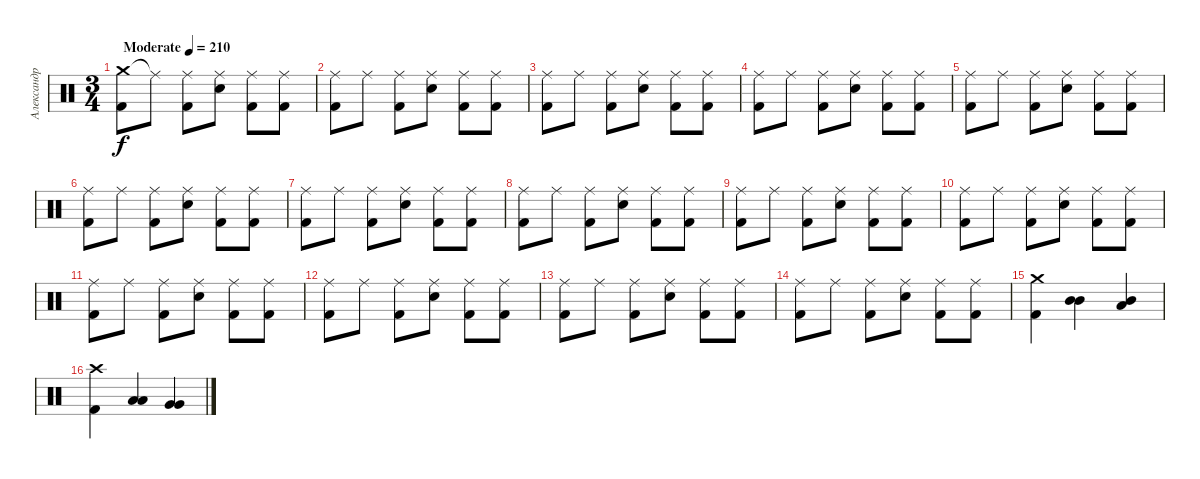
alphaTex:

\track ("Александр Манякин" "Александр ") {instrument percussion}
\staff {score}
\articulation defaults
\ts (3 4)
\tempo (210 "Moderate")
\clef neutral
\ks c
("Crash medium (hit)" "Kick (hit) 2").8{dy f} "Ride (middle)"{t}.8 ("Ride (middle)" "Kick (hit) 2").8 ("Ride (middle)" "Snare (hit) 2").8 ("Ride (middle)" "Kick (hit) 2").8 ("Ride (middle)" "Kick (hit) 2").8 |
("Ride (middle)" "Kick (hit) 2").8 "Ride (middle)".8 ("Ride (middle)" "Kick (hit) 2").8 ("Ride (middle)" "Snare (hit) 2").8 ("Ride (middle)" "Kick (hit) 2").8 ("Ride (middle)" "Kick (hit) 2").8 |
("Ride (middle)" "Kick (hit) 2").8 "Ride (middle)".8 ("Ride (middle)" "Kick (hit) 2").8 ("Ride (middle)" "Snare (hit) 2").8 ("Ride (middle)" "Kick (hit) 2").8 ("Ride (middle)" "Kick (hit) 2").8 |
("Ride (middle)" "Kick (hit) 2").8 "Ride (middle)".8 ("Ride (middle)" "Kick (hit) 2").8 ("Ride (middle)" "Snare (hit) 2").8 ("Ride (middle)" "Kick (hit) 2").8 ("Ride (middle)" "Kick (hit) 2").8 |
("Ride (middle)" "Kick (hit) 2").8 "Ride (middle)".8 ("Ride (middle)" "Kick (hit) 2").8 ("Ride (middle)" "Snare (hit) 2").8 ("Ride (middle)" "Kick (hit) 2").8 ("Ride (middle)" "Kick (hit) 2").8 |
("Ride (middle)" "Kick (hit) 2").8 "Ride (middle)".8 ("Ride (middle)" "Kick (hit) 2").8 ("Ride (middle)" "Snare (hit) 2").8 ("Ride (middle)" "Kick (hit) 2").8 ("Ride (middle)" "Kick (hit) 2").8 |
("Ride (middle)" "Kick (hit) 2").8 "Ride (middle)".8 ("Ride (middle)" "Kick (hit) 2").8 ("Ride (middle)" "Snare (hit) 2").8 ("Ride (middle)" "Kick (hit) 2").8 ("Ride (middle)" "Kick (hit) 2").8 |
("Ride (middle)" "Kick (hit) 2").8 "Ride (middle)".8 ("Ride (middle)" "Kick (hit) 2").8 ("Ride (middle)" "Snare (hit) 2").8 ("Ride (middle)" "Kick (hit) 2").8 ("Ride (middle)" "Kick (hit) 2").8 |
("Ride (middle)" "Kick (hit) 2").8 "Ride (middle)".8 ("Ride (middle)" "Kick (hit) 2").8 ("Ride (middle)" "Snare (hit) 2").8 ("Ride (middle)" "Kick (hit) 2").8 ("Ride (middle)" "Kick (hit) 2").8 |
("Ride (middle)" "Kick (hit) 2").8 "Ride (middle)".8 ("Ride (middle)" "Kick (hit) 2").8 ("Ride (middle)" "Snare (hit) 2").8 ("Ride (middle)" "Kick (hit) 2").8 ("Ride (middle)" "Kick (hit) 2").8 |
("Ride (middle)" "Kick (hit) 2").8 "Ride (middle)".8 ("Ride (middle)" "Kick (hit) 2").8 ("Ride (middle)" "Snare (hit) 2").8 ("Ride (middle)" "Kick (hit) 2").8 ("Ride (middle)" "Kick (hit) 2").8 |
("Ride (middle)" "Kick (hit) 2").8 "Ride (middle)".8 ("Ride (middle)" "Kick (hit) 2").8 ("Ride (middle)" "Snare (hit) 2").8 ("Ride (middle)" "Kick (hit) 2").8 ("Ride (middle)" "Kick (hit) 2").8 |
("Ride (middle)" "Kick (hit) 2").8 "Ride (middle)".8 ("Ride (middle)" "Kick (hit) 2").8 ("Ride (middle)" "Snare (hit) 2").8 ("Ride (middle)" "Kick (hit) 2").8 ("Ride (middle)" "Kick (hit) 2").8 |
("Ride (middle)" "Kick (hit) 2").8 "Ride (middle)".8 ("Ride (middle)" "Kick (hit) 2").8 ("Ride (middle)" "Snare (hit) 2").8 ("Ride (middle)" "Kick (hit) 2").8 ("Ride (middle)" "Kick (hit) 2").8 |
("Crash medium (hit)" "Kick (hit) 2").4 ("Mid Tom (hit)" "Mid Tom (hit)").4{bd 60} ("Mid Tom (hit)" "Low Tom (hit)").4{bd 60} |
("Crash high (hit)" "Kick (hit) 2").4 ("Low Tom (hit)" "Low Tom (hit)").4{bd 60} ("Very Low Tom (hit)" "Very Low Tom (hit)").4{bd 60}
